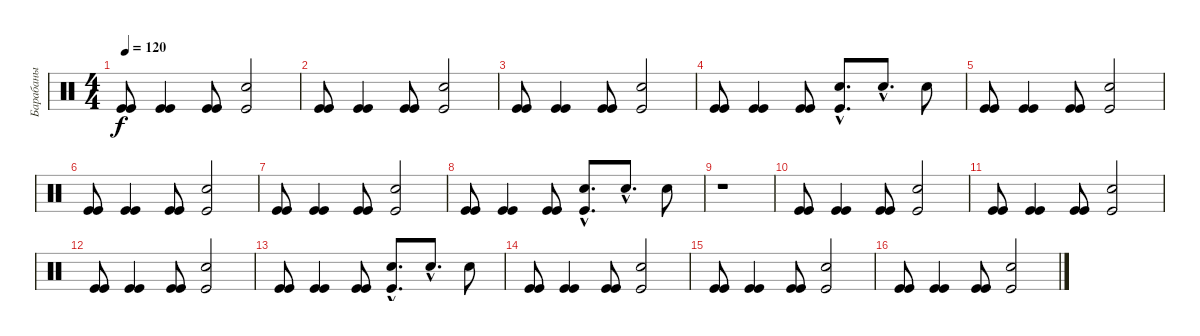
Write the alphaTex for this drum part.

\track ("Барабаны" "Барабаны") {instrument percussion}
\staff {score}
\articulation defaults
\ts (4 4)
\tempo 120
\clef neutral
\ks c
("Kick (hit)" "Kick (hit)").8{dy f volume 13} ("Kick (hit)" "Kick (hit)").4 ("Kick (hit)" "Kick (hit)").8 ("Kick (hit)" "Snare (hit) 2").2 |
("Kick (hit)" "Kick (hit)").8 ("Kick (hit)" "Kick (hit)").4 ("Kick (hit)" "Kick (hit)").8 ("Kick (hit)" "Snare (hit) 2").2 |
("Kick (hit)" "Kick (hit)").8 ("Kick (hit)" "Kick (hit)").4 ("Kick (hit)" "Kick (hit)").8 ("Kick (hit)" "Snare (hit) 2").2 |
("Kick (hit)" "Kick (hit)").8 ("Kick (hit)" "Kick (hit)").4 ("Kick (hit)" "Kick (hit)").8 ("Kick (hit)"{hac} "Snare (hit) 2"{hac}).8{d} "Snare (hit) 2"{hac}.8{d volume 9} "Snare (hit) 2".8{volume 6} |
("Kick (hit)" "Kick (hit)").8{volume 13} ("Kick (hit)" "Kick (hit)").4 ("Kick (hit)" "Kick (hit)").8 ("Kick (hit)" "Snare (hit) 2").2 |
("Kick (hit)" "Kick (hit)").8 ("Kick (hit)" "Kick (hit)").4 ("Kick (hit)" "Kick (hit)").8 ("Kick (hit)" "Snare (hit) 2").2 |
("Kick (hit)" "Kick (hit)").8 ("Kick (hit)" "Kick (hit)").4 ("Kick (hit)" "Kick (hit)").8 ("Kick (hit)" "Snare (hit) 2").2 |
("Kick (hit)" "Kick (hit)").8 ("Kick (hit)" "Kick (hit)").4 ("Kick (hit)" "Kick (hit)").8 ("Kick (hit)"{hac} "Snare (hit) 2"{hac}).8{d} "Snare (hit) 2"{hac}.8{d volume 9} "Snare (hit) 2".8{volume 6} |
r.1 |
("Kick (hit)" "Kick (hit)").8{volume 13} ("Kick (hit)" "Kick (hit)").4 ("Kick (hit)" "Kick (hit)").8 ("Kick (hit)" "Snare (hit) 2").2 |
("Kick (hit)" "Kick (hit)").8 ("Kick (hit)" "Kick (hit)").4 ("Kick (hit)" "Kick (hit)").8 ("Kick (hit)" "Snare (hit) 2").2 |
("Kick (hit)" "Kick (hit)").8 ("Kick (hit)" "Kick (hit)").4 ("Kick (hit)" "Kick (hit)").8 ("Kick (hit)" "Snare (hit) 2").2 |
("Kick (hit)" "Kick (hit)").8 ("Kick (hit)" "Kick (hit)").4 ("Kick (hit)" "Kick (hit)").8 ("Kick (hit)"{hac} "Snare (hit) 2"{hac}).8{d} "Snare (hit) 2"{hac}.8{d volume 9} "Snare (hit) 2".8{volume 6} |
("Kick (hit)" "Kick (hit)").8{volume 13} ("Kick (hit)" "Kick (hit)").4 ("Kick (hit)" "Kick (hit)").8 ("Kick (hit)" "Snare (hit) 2").2 |
("Kick (hit)" "Kick (hit)").8 ("Kick (hit)" "Kick (hit)").4 ("Kick (hit)" "Kick (hit)").8 ("Kick (hit)" "Snare (hit) 2").2 |
("Kick (hit)" "Kick (hit)").8 ("Kick (hit)" "Kick (hit)").4 ("Kick (hit)" "Kick (hit)").8 ("Kick (hit)" "Snare (hit) 2").2
